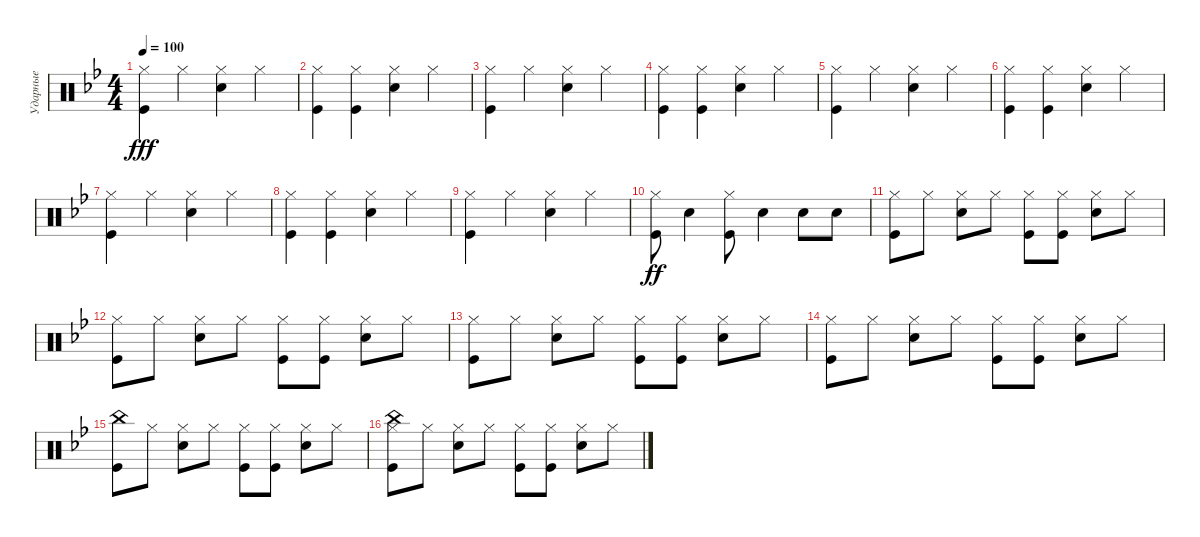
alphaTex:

\track ("Ударные" "Ударные") {instrument percussion}
\staff {score}
\articulation defaults
\ts (4 4)
\tempo 100
\clef neutral
\ks gminor
("Hi-Hat (closed)" "Kick (hit)").4{dy fff} "Hi-Hat (closed)".4 ("Hi-Hat (closed)" "Snare (hit) 2").4 "Hi-Hat (closed)".4 |
("Kick (hit)" "Hi-Hat (closed)").4 ("Hi-Hat (closed)" "Kick (hit)").4 ("Hi-Hat (closed)" "Snare (hit) 2").4 "Hi-Hat (closed)".4 |
("Hi-Hat (closed)" "Kick (hit)").4 "Hi-Hat (closed)".4 ("Hi-Hat (closed)" "Snare (hit) 2").4 "Hi-Hat (closed)".4 |
("Kick (hit)" "Hi-Hat (closed)").4 ("Hi-Hat (closed)" "Kick (hit)").4 ("Hi-Hat (closed)" "Snare (hit) 2").4 "Hi-Hat (closed)".4 |
("Hi-Hat (closed)" "Kick (hit)").4 "Hi-Hat (closed)".4 ("Hi-Hat (closed)" "Snare (hit) 2").4 "Hi-Hat (closed)".4 |
("Kick (hit)" "Hi-Hat (closed)").4 ("Hi-Hat (closed)" "Kick (hit)").4 ("Hi-Hat (closed)" "Snare (hit) 2").4 "Hi-Hat (closed)".4 |
("Hi-Hat (closed)" "Kick (hit)").4 "Hi-Hat (closed)".4 ("Hi-Hat (closed)" "Snare (hit) 2").4 "Hi-Hat (closed)".4 |
("Kick (hit)" "Hi-Hat (closed)").4 ("Hi-Hat (closed)" "Kick (hit)").4 ("Hi-Hat (closed)" "Snare (hit) 2").4 "Hi-Hat (closed)".4 |
("Hi-Hat (closed)" "Kick (hit)").4 "Hi-Hat (closed)".4 ("Hi-Hat (closed)" "Snare (hit) 2").4 "Hi-Hat (closed)".4 |
("Kick (hit)" "Hi-Hat (closed)").8{dy ff} "Snare (hit) 2".4 ("Kick (hit)" "Hi-Hat (closed)").8 "Snare (hit) 2".4 "Snare (hit) 2".8 "Snare (hit) 2".8 |
("Hi-Hat (closed)" "Kick (hit)").8 "Hi-Hat (closed)".8 ("Hi-Hat (closed)" "Snare (hit) 2").8 "Hi-Hat (closed)".8 ("Hi-Hat (closed)" "Kick (hit)").8 ("Hi-Hat (closed)" "Kick (hit)").8 ("Snare (hit) 2" "Hi-Hat (closed)").8 "Hi-Hat (closed)".8 |
("Hi-Hat (closed)" "Kick (hit)").8 "Hi-Hat (closed)".8 ("Hi-Hat (closed)" "Snare (hit) 2").8 "Hi-Hat (closed)".8 ("Hi-Hat (closed)" "Kick (hit)").8 ("Hi-Hat (closed)" "Kick (hit)").8 ("Snare (hit) 2" "Hi-Hat (closed)").8 "Hi-Hat (closed)".8 |
("Hi-Hat (closed)" "Kick (hit)").8 "Hi-Hat (closed)".8 ("Hi-Hat (closed)" "Snare (hit) 2").8 "Hi-Hat (closed)".8 ("Hi-Hat (closed)" "Kick (hit)").8 ("Hi-Hat (closed)" "Kick (hit)").8 ("Snare (hit) 2" "Hi-Hat (closed)").8 "Hi-Hat (closed)".8 |
("Hi-Hat (closed)" "Kick (hit)").8 "Hi-Hat (closed)".8 ("Hi-Hat (closed)" "Snare (hit) 2").8 "Hi-Hat (closed)".8 ("Hi-Hat (closed)" "Kick (hit)").8 ("Hi-Hat (closed)" "Kick (hit)").8 ("Snare (hit) 2" "Hi-Hat (closed)").8 "Hi-Hat (closed)".8 |
("China (hit)" "Kick (hit)").8 "Hi-Hat (closed)".8 ("Hi-Hat (closed)" "Snare (hit) 2").8 "Hi-Hat (closed)".8 ("Hi-Hat (closed)" "Kick (hit)").8 ("Hi-Hat (closed)" "Kick (hit)").8 ("Snare (hit) 2" "Hi-Hat (closed)").8 "Hi-Hat (closed)".8 |
("Hi-Hat (closed)" "Kick (hit)" "China (hit)").8 "Hi-Hat (closed)".8 ("Hi-Hat (closed)" "Snare (hit) 2").8 "Hi-Hat (closed)".8 ("Hi-Hat (closed)" "Kick (hit)").8 ("Hi-Hat (closed)" "Kick (hit)").8 ("Snare (hit) 2" "Hi-Hat (closed)").8 "Hi-Hat (closed)".8
